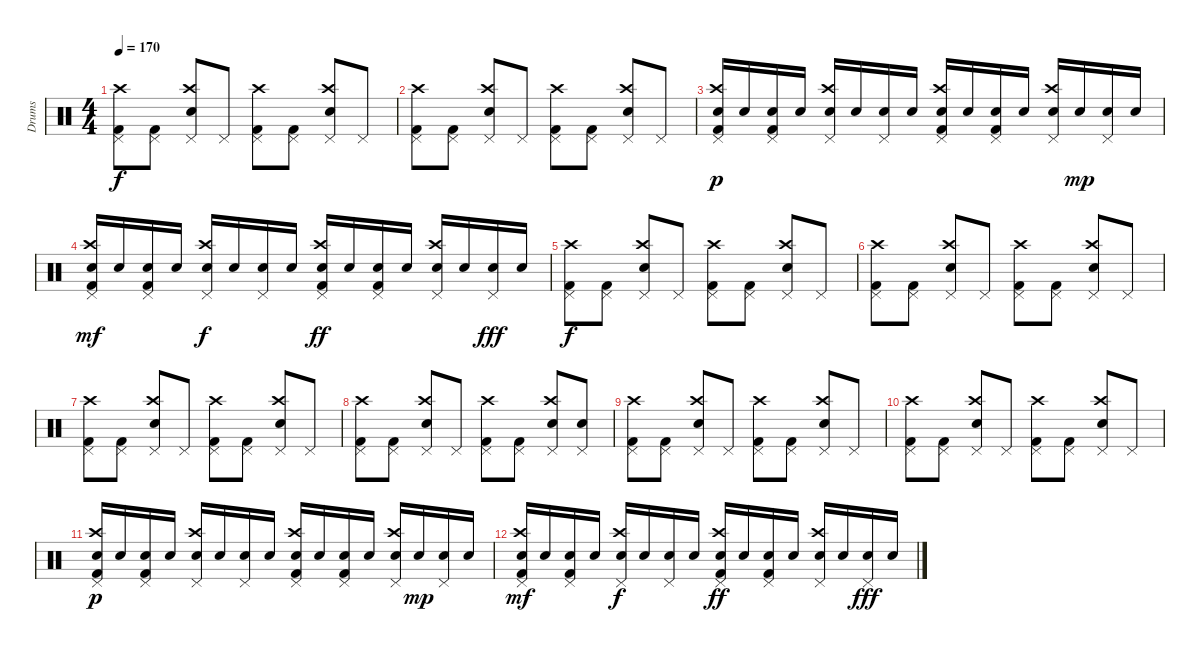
\track ("Drums" "Drums") {instrument percussion}
\staff {score}
\articulation defaults
\ts (4 4)
\tempo 170
\clef neutral
\ks c
("Pedal Hi-Hat (hit)" "Kick (hit) 2" "Crash high (hit)").8{dy f} ("Pedal Hi-Hat (hit)" "Kick (hit) 2").8 ("Pedal Hi-Hat (hit)" "Electric Snare (hit)" "Crash high (hit)").8 "Pedal Hi-Hat (hit)".8 ("Pedal Hi-Hat (hit)" "Kick (hit) 2" "Crash high (hit)").8 ("Pedal Hi-Hat (hit)" "Kick (hit) 2").8 ("Pedal Hi-Hat (hit)" "Electric Snare (hit)" "Crash high (hit)").8 "Pedal Hi-Hat (hit)".8 |
("Pedal Hi-Hat (hit)" "Kick (hit) 2" "Crash high (hit)").8 ("Pedal Hi-Hat (hit)" "Kick (hit) 2").8 ("Pedal Hi-Hat (hit)" "Electric Snare (hit)" "Crash high (hit)").8 "Pedal Hi-Hat (hit)".8 ("Pedal Hi-Hat (hit)" "Kick (hit) 2" "Crash high (hit)").8 ("Pedal Hi-Hat (hit)" "Kick (hit) 2").8 ("Pedal Hi-Hat (hit)" "Electric Snare (hit)" "Crash high (hit)").8 "Pedal Hi-Hat (hit)".8 |
("Pedal Hi-Hat (hit)" "Electric Snare (hit)" "Kick (hit) 2" "Crash high (hit)").16{dy p} "Electric Snare (hit)".16 ("Pedal Hi-Hat (hit)" "Electric Snare (hit)" "Kick (hit) 2").16 "Electric Snare (hit)".16 ("Pedal Hi-Hat (hit)" "Electric Snare (hit)" "Crash high (hit)").16 "Electric Snare (hit)".16 ("Pedal Hi-Hat (hit)" "Electric Snare (hit)").16 "Electric Snare (hit)".16 ("Pedal Hi-Hat (hit)" "Electric Snare (hit)" "Kick (hit) 2" "Crash high (hit)").16 "Electric Snare (hit)".16 ("Pedal Hi-Hat (hit)" "Electric Snare (hit)" "Kick (hit) 2").16 "Electric Snare (hit)".16 ("Pedal Hi-Hat (hit)" "Electric Snare (hit)" "Crash high (hit)").16 "Electric Snare (hit)".16{dy mp} ("Pedal Hi-Hat (hit)" "Electric Snare (hit)").16 "Electric Snare (hit)".16 |
("Pedal Hi-Hat (hit)" "Electric Snare (hit)" "Kick (hit) 2" "Crash high (hit)").16{dy mf} "Electric Snare (hit)".16 ("Pedal Hi-Hat (hit)" "Electric Snare (hit)" "Kick (hit) 2").16 "Electric Snare (hit)".16 ("Pedal Hi-Hat (hit)" "Electric Snare (hit)" "Crash high (hit)").16{dy f} "Electric Snare (hit)".16 ("Pedal Hi-Hat (hit)" "Electric Snare (hit)").16 "Electric Snare (hit)".16 ("Pedal Hi-Hat (hit)" "Electric Snare (hit)" "Kick (hit) 2" "Crash high (hit)").16{dy ff} "Electric Snare (hit)".16 ("Pedal Hi-Hat (hit)" "Electric Snare (hit)" "Kick (hit) 2").16 "Electric Snare (hit)".16 ("Pedal Hi-Hat (hit)" "Electric Snare (hit)" "Crash high (hit)").16 "Electric Snare (hit)".16 ("Pedal Hi-Hat (hit)" "Electric Snare (hit)").16{dy fff} "Electric Snare (hit)".16 |
("Pedal Hi-Hat (hit)" "Kick (hit) 2" "Crash high (hit)").8{dy f} ("Pedal Hi-Hat (hit)" "Kick (hit) 2").8 ("Pedal Hi-Hat (hit)" "Electric Snare (hit)" "Crash high (hit)").8 "Pedal Hi-Hat (hit)".8 ("Pedal Hi-Hat (hit)" "Kick (hit) 2" "Crash high (hit)").8 ("Pedal Hi-Hat (hit)" "Kick (hit) 2").8 ("Pedal Hi-Hat (hit)" "Electric Snare (hit)" "Crash high (hit)").8 "Pedal Hi-Hat (hit)".8 |
("Pedal Hi-Hat (hit)" "Kick (hit) 2" "Crash high (hit)").8 ("Pedal Hi-Hat (hit)" "Kick (hit) 2").8 ("Pedal Hi-Hat (hit)" "Electric Snare (hit)" "Crash high (hit)").8 "Pedal Hi-Hat (hit)".8 ("Pedal Hi-Hat (hit)" "Kick (hit) 2" "Crash high (hit)").8 ("Pedal Hi-Hat (hit)" "Kick (hit) 2").8 ("Pedal Hi-Hat (hit)" "Electric Snare (hit)" "Crash high (hit)").8 "Pedal Hi-Hat (hit)".8 |
("Pedal Hi-Hat (hit)" "Kick (hit) 2" "Crash high (hit)").8 ("Pedal Hi-Hat (hit)" "Kick (hit) 2").8 ("Pedal Hi-Hat (hit)" "Electric Snare (hit)" "Crash high (hit)").8 "Pedal Hi-Hat (hit)".8 ("Pedal Hi-Hat (hit)" "Kick (hit) 2" "Crash high (hit)").8 ("Pedal Hi-Hat (hit)" "Kick (hit) 2").8 ("Pedal Hi-Hat (hit)" "Electric Snare (hit)" "Crash high (hit)").8 "Pedal Hi-Hat (hit)".8 |
("Pedal Hi-Hat (hit)" "Kick (hit) 2" "Crash high (hit)").8 ("Pedal Hi-Hat (hit)" "Kick (hit) 2").8 ("Pedal Hi-Hat (hit)" "Electric Snare (hit)" "Crash high (hit)").8 "Pedal Hi-Hat (hit)".8 ("Pedal Hi-Hat (hit)" "Kick (hit) 2" "Crash high (hit)").8 ("Pedal Hi-Hat (hit)" "Kick (hit) 2").8 ("Pedal Hi-Hat (hit)" "Electric Snare (hit)" "Crash high (hit)").8 ("Pedal Hi-Hat (hit)" "Electric Snare (hit)").8 |
("Pedal Hi-Hat (hit)" "Kick (hit) 2" "Crash high (hit)").8 ("Pedal Hi-Hat (hit)" "Kick (hit) 2").8 ("Pedal Hi-Hat (hit)" "Electric Snare (hit)" "Crash high (hit)").8 "Pedal Hi-Hat (hit)".8 ("Pedal Hi-Hat (hit)" "Kick (hit) 2" "Crash high (hit)").8 ("Pedal Hi-Hat (hit)" "Kick (hit) 2").8 ("Pedal Hi-Hat (hit)" "Electric Snare (hit)" "Crash high (hit)").8 "Pedal Hi-Hat (hit)".8 |
("Pedal Hi-Hat (hit)" "Kick (hit) 2" "Crash high (hit)").8 ("Pedal Hi-Hat (hit)" "Kick (hit) 2").8 ("Pedal Hi-Hat (hit)" "Electric Snare (hit)" "Crash high (hit)").8 "Pedal Hi-Hat (hit)".8 ("Pedal Hi-Hat (hit)" "Kick (hit) 2" "Crash high (hit)").8 ("Pedal Hi-Hat (hit)" "Kick (hit) 2").8 ("Pedal Hi-Hat (hit)" "Electric Snare (hit)" "Crash high (hit)").8 "Pedal Hi-Hat (hit)".8 |
("Pedal Hi-Hat (hit)" "Electric Snare (hit)" "Kick (hit) 2" "Crash high (hit)").16{dy p} "Electric Snare (hit)".16 ("Pedal Hi-Hat (hit)" "Electric Snare (hit)" "Kick (hit) 2").16 "Electric Snare (hit)".16 ("Pedal Hi-Hat (hit)" "Electric Snare (hit)" "Crash high (hit)").16 "Electric Snare (hit)".16 ("Pedal Hi-Hat (hit)" "Electric Snare (hit)").16 "Electric Snare (hit)".16 ("Pedal Hi-Hat (hit)" "Electric Snare (hit)" "Kick (hit) 2" "Crash high (hit)").16 "Electric Snare (hit)".16 ("Pedal Hi-Hat (hit)" "Electric Snare (hit)" "Kick (hit) 2").16 "Electric Snare (hit)".16 ("Pedal Hi-Hat (hit)" "Electric Snare (hit)" "Crash high (hit)").16 "Electric Snare (hit)".16{dy mp} ("Pedal Hi-Hat (hit)" "Electric Snare (hit)").16 "Electric Snare (hit)".16 |
("Pedal Hi-Hat (hit)" "Electric Snare (hit)" "Kick (hit) 2" "Crash high (hit)").16{dy mf} "Electric Snare (hit)".16 ("Pedal Hi-Hat (hit)" "Electric Snare (hit)" "Kick (hit) 2").16 "Electric Snare (hit)".16 ("Pedal Hi-Hat (hit)" "Electric Snare (hit)" "Crash high (hit)").16{dy f} "Electric Snare (hit)".16 ("Pedal Hi-Hat (hit)" "Electric Snare (hit)").16 "Electric Snare (hit)".16 ("Pedal Hi-Hat (hit)" "Electric Snare (hit)" "Kick (hit) 2" "Crash high (hit)").16{dy ff} "Electric Snare (hit)".16 ("Pedal Hi-Hat (hit)" "Electric Snare (hit)" "Kick (hit) 2").16 "Electric Snare (hit)".16 ("Pedal Hi-Hat (hit)" "Electric Snare (hit)" "Crash high (hit)").16 "Electric Snare (hit)".16 ("Pedal Hi-Hat (hit)" "Electric Snare (hit)").16{dy fff} "Electric Snare (hit)".16
